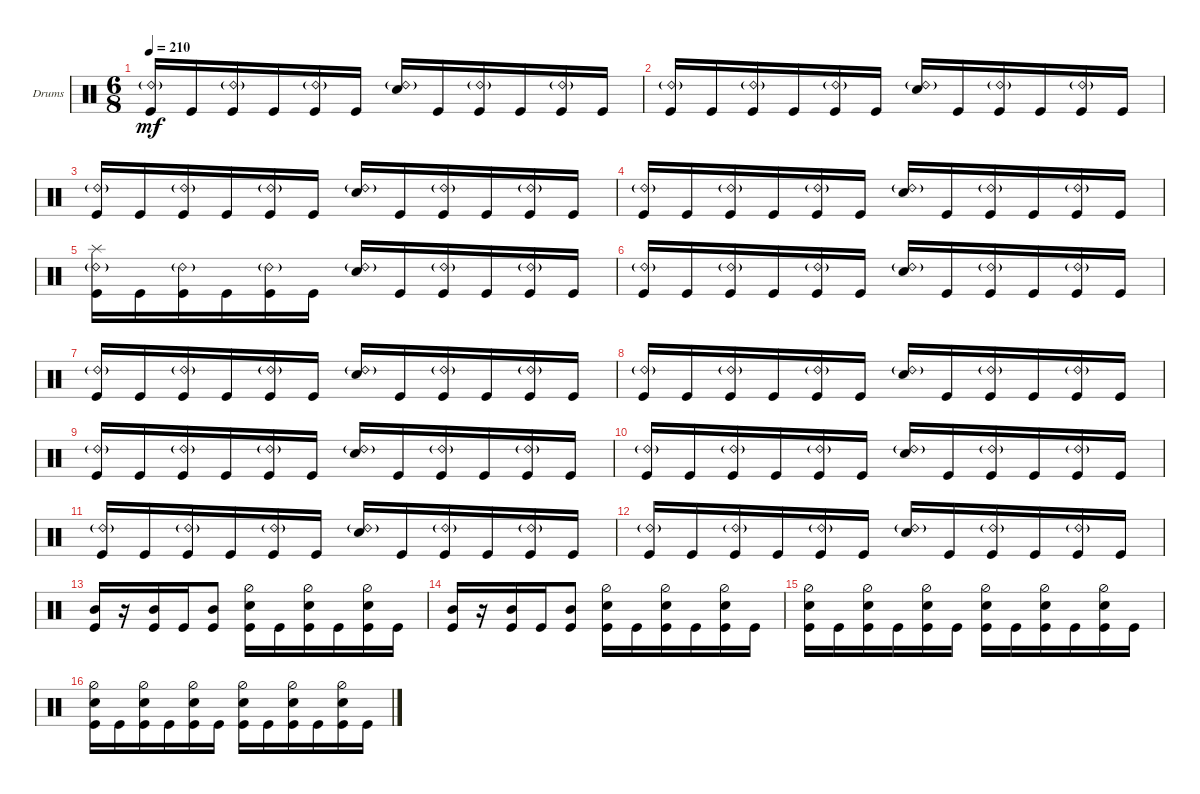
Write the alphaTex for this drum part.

\bracketExtendMode groupsimilarinstruments
\firstSystemTrackNameOrientation horizontal
\otherSystemsTrackNameOrientation horizontal
\track ("Drumkit" "Drums") {instrument percussion}
\staff {score}
\articulation defaults
\ts (6 8)
\tempo 210
\clef neutral
\ks c
("Kick (hit)" "Ride (bell) 2"{g}).16{dy mf} "Kick (hit)".16 ("Kick (hit)" "Ride (bell) 2"{g}).16 "Kick (hit)".16 ("Kick (hit)" "Ride (bell) 2"{g}).16 "Kick (hit)".16 ("Snare (hit) 2" "Ride (bell) 2"{g}).16 "Kick (hit)".16 ("Kick (hit)" "Ride (bell) 2"{g}).16 "Kick (hit)".16 ("Kick (hit)" "Ride (bell) 2"{g}).16 "Kick (hit)".16 |
("Kick (hit)" "Ride (bell) 2"{g}).16 "Kick (hit)".16 ("Kick (hit)" "Ride (bell) 2"{g}).16 "Kick (hit)".16 ("Kick (hit)" "Ride (bell) 2"{g}).16 "Kick (hit)".16 ("Snare (hit) 2" "Ride (bell) 2"{g}).16 "Kick (hit)".16 ("Kick (hit)" "Ride (bell) 2"{g}).16 "Kick (hit)".16 ("Kick (hit)" "Ride (bell) 2"{g}).16 "Kick (hit)".16 |
("Kick (hit)" "Ride (bell) 2"{g}).16 "Kick (hit)".16 ("Kick (hit)" "Ride (bell) 2"{g}).16 "Kick (hit)".16 ("Kick (hit)" "Ride (bell) 2"{g}).16 "Kick (hit)".16 ("Snare (hit) 2" "Ride (bell) 2"{g}).16 "Kick (hit)".16 ("Kick (hit)" "Ride (bell) 2"{g}).16 "Kick (hit)".16 ("Kick (hit)" "Ride (bell) 2"{g}).16 "Kick (hit)".16 |
("Kick (hit)" "Ride (bell) 2"{g}).16 "Kick (hit)".16 ("Kick (hit)" "Ride (bell) 2"{g}).16 "Kick (hit)".16 ("Kick (hit)" "Ride (bell) 2"{g}).16 "Kick (hit)".16 ("Snare (hit) 2" "Ride (bell) 2"{g}).16 "Kick (hit)".16 ("Kick (hit)" "Ride (bell) 2"{g}).16 "Kick (hit)".16 ("Kick (hit)" "Ride (bell) 2"{g}).16 "Kick (hit)".16 |
("Kick (hit)" "Ride (bell) 2"{g} "Splash (hit)").16 "Kick (hit)".16 ("Kick (hit)" "Ride (bell) 2"{g}).16 "Kick (hit)".16 ("Kick (hit)" "Ride (bell) 2"{g}).16 "Kick (hit)".16 ("Snare (hit) 2" "Ride (bell) 2"{g}).16 "Kick (hit)".16 ("Kick (hit)" "Ride (bell) 2"{g}).16 "Kick (hit)".16 ("Kick (hit)" "Ride (bell) 2"{g}).16 "Kick (hit)".16 |
("Kick (hit)" "Ride (bell) 2"{g}).16 "Kick (hit)".16 ("Kick (hit)" "Ride (bell) 2"{g}).16 "Kick (hit)".16 ("Kick (hit)" "Ride (bell) 2"{g}).16 "Kick (hit)".16 ("Snare (hit) 2" "Ride (bell) 2"{g}).16 "Kick (hit)".16 ("Kick (hit)" "Ride (bell) 2"{g}).16 "Kick (hit)".16 ("Kick (hit)" "Ride (bell) 2"{g}).16 "Kick (hit)".16 |
("Kick (hit)" "Ride (bell) 2"{g}).16 "Kick (hit)".16 ("Kick (hit)" "Ride (bell) 2"{g}).16 "Kick (hit)".16 ("Kick (hit)" "Ride (bell) 2"{g}).16 "Kick (hit)".16 ("Snare (hit) 2" "Ride (bell) 2"{g}).16 "Kick (hit)".16 ("Kick (hit)" "Ride (bell) 2"{g}).16 "Kick (hit)".16 ("Kick (hit)" "Ride (bell) 2"{g}).16 "Kick (hit)".16 |
("Kick (hit)" "Ride (bell) 2"{g}).16 "Kick (hit)".16 ("Kick (hit)" "Ride (bell) 2"{g}).16 "Kick (hit)".16 ("Kick (hit)" "Ride (bell) 2"{g}).16 "Kick (hit)".16 ("Snare (hit) 2" "Ride (bell) 2"{g}).16 "Kick (hit)".16 ("Kick (hit)" "Ride (bell) 2"{g}).16 "Kick (hit)".16 ("Kick (hit)" "Ride (bell) 2"{g}).16 "Kick (hit)".16 |
("Kick (hit)" "Ride (bell) 2"{g}).16 "Kick (hit)".16 ("Kick (hit)" "Ride (bell) 2"{g}).16 "Kick (hit)".16 ("Kick (hit)" "Ride (bell) 2"{g}).16 "Kick (hit)".16 ("Snare (hit) 2" "Ride (bell) 2"{g}).16 "Kick (hit)".16 ("Kick (hit)" "Ride (bell) 2"{g}).16 "Kick (hit)".16 ("Kick (hit)" "Ride (bell) 2"{g}).16 "Kick (hit)".16 |
("Kick (hit)" "Ride (bell) 2"{g}).16 "Kick (hit)".16 ("Kick (hit)" "Ride (bell) 2"{g}).16 "Kick (hit)".16 ("Kick (hit)" "Ride (bell) 2"{g}).16 "Kick (hit)".16 ("Snare (hit) 2" "Ride (bell) 2"{g}).16 "Kick (hit)".16 ("Kick (hit)" "Ride (bell) 2"{g}).16 "Kick (hit)".16 ("Kick (hit)" "Ride (bell) 2"{g}).16 "Kick (hit)".16 |
("Kick (hit)" "Ride (bell) 2"{g}).16 "Kick (hit)".16 ("Kick (hit)" "Ride (bell) 2"{g}).16 "Kick (hit)".16 ("Kick (hit)" "Ride (bell) 2"{g}).16 "Kick (hit)".16 ("Snare (hit) 2" "Ride (bell) 2"{g}).16 "Kick (hit)".16 ("Kick (hit)" "Ride (bell) 2"{g}).16 "Kick (hit)".16 ("Kick (hit)" "Ride (bell) 2"{g}).16 "Kick (hit)".16 |
("Kick (hit)" "Ride (bell) 2"{g}).16 "Kick (hit)".16 ("Kick (hit)" "Ride (bell) 2"{g}).16 "Kick (hit)".16 ("Kick (hit)" "Ride (bell) 2"{g}).16 "Kick (hit)".16 ("Snare (hit) 2" "Ride (bell) 2"{g}).16 "Kick (hit)".16 ("Kick (hit)" "Ride (bell) 2"{g}).16 "Kick (hit)".16 ("Kick (hit)" "Ride (bell) 2"{g}).16 "Kick (hit)".16 |
("Kick (hit)" "Mid Tom (hit)").16 r.16 ("Kick (hit)" "Mid Tom (hit)").16 "Kick (hit)".16 ("Kick (hit)" "Mid Tom (hit)").8 ("Kick (hit)" "Snare (hit) 2" "Hi-Hat (half)").16 "Kick (hit)".16 ("Kick (hit)" "Snare (hit) 2" "Hi-Hat (half)").16 "Kick (hit)".16 ("Kick (hit)" "Snare (hit) 2" "Hi-Hat (half)").16 "Kick (hit)".16 |
("Kick (hit)" "Mid Tom (hit)").16 r.16 ("Kick (hit)" "Mid Tom (hit)").16 "Kick (hit)".16 ("Kick (hit)" "Mid Tom (hit)").8 ("Kick (hit)" "Snare (hit) 2" "Hi-Hat (half)").16 "Kick (hit)".16 ("Kick (hit)" "Snare (hit) 2" "Hi-Hat (half)").16 "Kick (hit)".16 ("Kick (hit)" "Snare (hit) 2" "Hi-Hat (half)").16 "Kick (hit)".16 |
("Kick (hit)" "Snare (hit) 2" "Hi-Hat (half)").16 "Kick (hit)".16 ("Kick (hit)" "Snare (hit) 2" "Hi-Hat (half)").16 "Kick (hit)".16 ("Kick (hit)" "Snare (hit) 2" "Hi-Hat (half)").16 "Kick (hit)".16 ("Kick (hit)" "Snare (hit) 2" "Hi-Hat (half)").16 "Kick (hit)".16 ("Kick (hit)" "Snare (hit) 2" "Hi-Hat (half)").16 "Kick (hit)".16 ("Kick (hit)" "Snare (hit) 2" "Hi-Hat (half)").16 "Kick (hit)".16 |
("Kick (hit)" "Snare (hit) 2" "Hi-Hat (half)").16 "Kick (hit)".16 ("Kick (hit)" "Snare (hit) 2" "Hi-Hat (half)").16 "Kick (hit)".16 ("Kick (hit)" "Snare (hit) 2" "Hi-Hat (half)").16 "Kick (hit)".16 ("Kick (hit)" "Snare (hit) 2" "Hi-Hat (half)").16 "Kick (hit)".16 ("Kick (hit)" "Snare (hit) 2" "Hi-Hat (half)").16 "Kick (hit)".16 ("Kick (hit)" "Snare (hit) 2" "Hi-Hat (half)").16 "Kick (hit)".16
